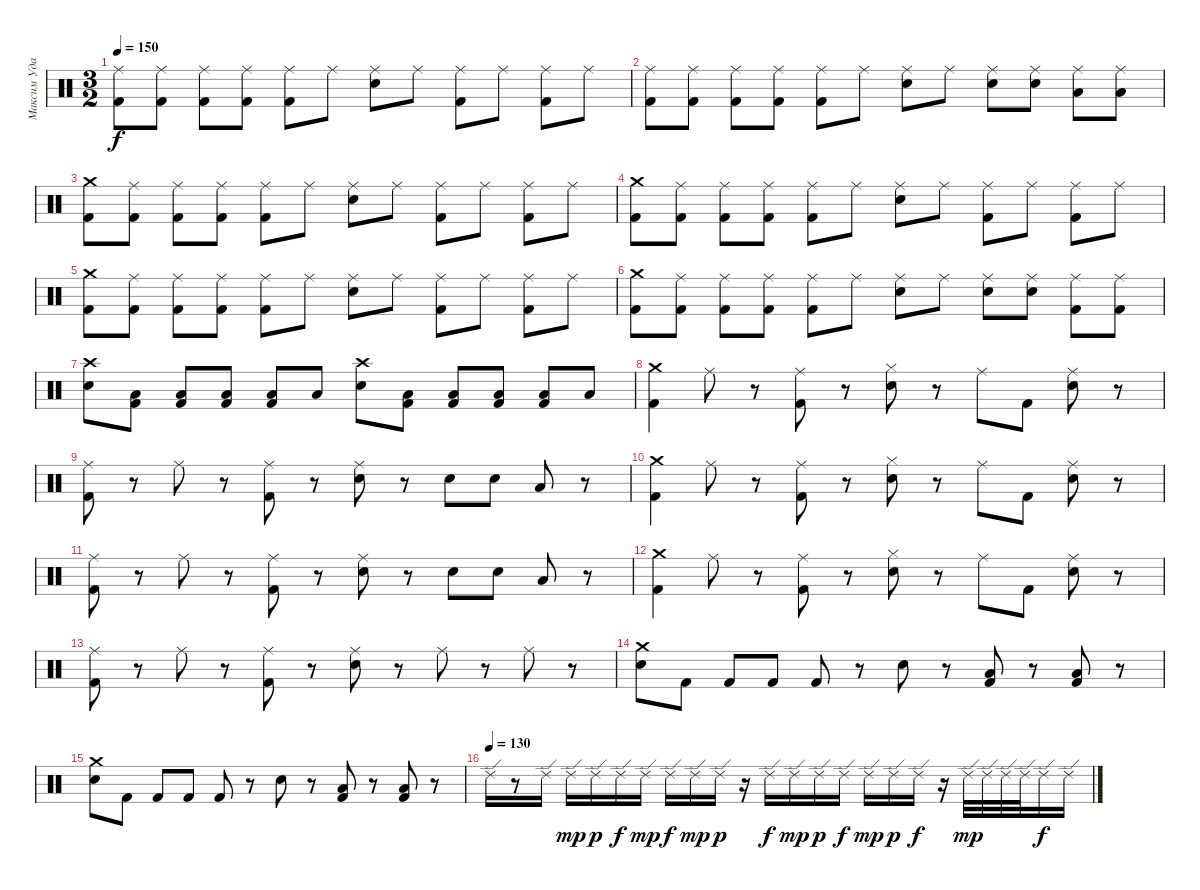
\track ("Максим Удалов" "Максим Уда") {instrument percussion}
\staff {score}
\articulation defaults
\ts (3 2)
\tempo 150
\clef neutral
\ks c
("Kick (hit) 2" "Ride (middle)").8{dy f} ("Ride (middle)" "Kick (hit) 2").8 ("Kick (hit) 2" "Ride (middle)").8 ("Kick (hit) 2" "Ride (middle)").8 ("Kick (hit) 2" "Ride (middle)").8 "Ride (middle)".8 ("Electric Snare (hit)" "Ride (middle)").8 "Ride (middle)".8 ("Kick (hit) 2" "Ride (middle)").8 "Ride (middle)".8 ("Kick (hit) 2" "Ride (middle)").8 "Ride (middle)".8 |
("Kick (hit) 2" "Ride (middle)").8 ("Kick (hit) 2" "Ride (middle)").8 ("Ride (middle)" "Kick (hit) 2").8 ("Ride (middle)" "Kick (hit) 2").8 ("Kick (hit) 2" "Ride (middle)").8 "Ride (middle)".8 ("Ride (middle)" "Electric Snare (hit)").8 "Ride (middle)".8 ("Electric Snare (hit)" "Ride (middle)").8 ("Electric Snare (hit)" "Ride (middle)").8 ("Low Floor Tom (hit)" "Ride (middle)").8 ("Low Floor Tom (hit)" "Ride (middle)").8 |
("Crash medium (hit)" "Kick (hit) 2").8 ("Ride (middle)" "Kick (hit) 2").8 ("Ride (middle)" "Kick (hit) 2").8 ("Ride (middle)" "Kick (hit) 2").8 ("Kick (hit) 2" "Ride (middle)").8 "Ride (middle)".8 ("Electric Snare (hit)" "Ride (middle)").8 "Ride (middle)".8 ("Kick (hit) 2" "Ride (middle)").8 "Ride (middle)".8 ("Kick (hit) 2" "Ride (middle)").8 "Ride (middle)".8 |
("Crash medium (hit)" "Kick (hit) 2").8 ("Kick (hit) 2" "Ride (middle)").8 ("Kick (hit) 2" "Ride (middle)").8 ("Kick (hit) 2" "Ride (middle)").8 ("Ride (middle)" "Kick (hit) 2").8 "Ride (middle)".8 ("Ride (middle)" "Electric Snare (hit)").8 "Ride (middle)".8 ("Ride (middle)" "Kick (hit) 2").8 "Ride (middle)".8 ("Ride (middle)" "Kick (hit) 2").8 "Ride (middle)".8 |
("Kick (hit) 2" "Crash medium (hit)").8 ("Kick (hit) 2" "Ride (middle)").8 ("Kick (hit) 2" "Ride (middle)").8 ("Ride (middle)" "Kick (hit) 2").8 ("Ride (middle)" "Kick (hit) 2").8 "Ride (middle)".8 ("Electric Snare (hit)" "Ride (middle)").8 "Ride (middle)".8 ("Kick (hit) 2" "Ride (middle)").8 "Ride (middle)".8 ("Kick (hit) 2" "Ride (middle)").8 "Ride (middle)".8 |
("Crash medium (hit)" "Kick (hit) 2").8 ("Ride (middle)" "Kick (hit) 2").8 ("Kick (hit) 2" "Ride (middle)").8 ("Kick (hit) 2" "Ride (middle)").8 ("Ride (middle)" "Kick (hit) 2").8 "Ride (middle)".8 ("Electric Snare (hit)" "Ride (middle)").8 "Ride (middle)".8 ("Electric Snare (hit)" "Ride (middle)").8 ("Electric Snare (hit)" "Ride (middle)").8 ("Ride (middle)" "Kick (hit) 2").8 ("Ride (middle)" "Kick (hit) 2").8 |
("Crash high (hit)" "Electric Snare (hit)").8 ("Low Floor Tom (hit)" "Kick (hit) 2").8 ("Kick (hit) 2" "Low Floor Tom (hit)").8 ("Low Floor Tom (hit)" "Kick (hit) 2").8 ("Low Floor Tom (hit)" "Kick (hit) 2").8 "Low Floor Tom (hit)".8 ("Crash high (hit)" "Electric Snare (hit)").8 ("Low Floor Tom (hit)" "Kick (hit) 2").8 ("Kick (hit) 2" "Low Floor Tom (hit)").8 ("Kick (hit) 2" "Low Floor Tom (hit)").8 ("Kick (hit) 2" "Low Floor Tom (hit)").8 "Low Floor Tom (hit)".8 |
("Crash medium (hit)" "Kick (hit) 2").4 "Ride (middle)".8 r.8 ("Ride (middle)" "Kick (hit) 2").8 r.8 ("Electric Snare (hit)" "Hi-Hat (closed)").8 r.8 "Ride (middle)".8 "Kick (hit) 2".8 ("Ride (middle)" "Electric Snare (hit)").8 r.8 |
("Ride (middle)" "Kick (hit) 2").8 r.8 "Ride (middle)".8 r.8 ("Kick (hit) 2" "Ride (middle)").8 r.8 ("Electric Snare (hit)" "Ride (middle)").8 r.8 "Electric Snare (hit)".8 "Electric Snare (hit)".8 "Low Floor Tom (hit)".8 r.8 |
("Kick (hit) 2" "Crash medium (hit)").4 "Ride (middle)".8 r.8 ("Kick (hit) 2" "Ride (middle)").8 r.8 ("Electric Snare (hit)" "Hi-Hat (closed)").8 r.8 "Ride (middle)".8 "Kick (hit) 2".8 ("Electric Snare (hit)" "Ride (middle)").8 r.8 |
("Kick (hit) 2" "Ride (middle)").8 r.8 "Ride (middle)".8 r.8 ("Ride (middle)" "Kick (hit) 2").8 r.8 ("Ride (middle)" "Electric Snare (hit)").8 r.8 "Electric Snare (hit)".8 "Electric Snare (hit)".8 "Low Floor Tom (hit)".8 r.8 |
("Kick (hit) 2" "Crash medium (hit)").4 "Ride (middle)".8 r.8 ("Kick (hit) 2" "Ride (middle)").8 r.8 ("Hi-Hat (closed)" "Electric Snare (hit)").8 r.8 "Ride (middle)".8 "Kick (hit) 2".8 ("Electric Snare (hit)" "Ride (middle)").8 r.8 |
("Kick (hit) 2" "Ride (middle)").8 r.8 "Ride (middle)".8 r.8 ("Ride (middle)" "Kick (hit) 2").8 r.8 ("Electric Snare (hit)" "Ride (middle)").8 r.8 "Ride (middle)".8 r.8 "Ride (middle)".8 r.8 |
("Electric Snare (hit)" "Crash medium (hit)").8 "Kick (hit) 2".8 "Kick (hit) 2".8 "Kick (hit) 2".8 "Kick (hit) 2".8 r.8 "Electric Snare (hit)".8 r.8 ("Low Floor Tom (hit)" "Kick (hit) 2").8 r.8 ("Low Floor Tom (hit)" "Kick (hit) 2").8 r.8 |
("Electric Snare (hit)" "Crash medium (hit)").8 "Kick (hit) 2".8 "Kick (hit) 2".8 "Kick (hit) 2".8 "Kick (hit) 2".8 r.8 "Electric Snare (hit)".8 r.8 ("Kick (hit) 2" "Low Floor Tom (hit)").8 r.8 ("Kick (hit) 2" "Low Floor Tom (hit)").8 r.8 |
\tempo (130)
"Ride (edge) 2".16 r.8 "Ride (edge) 2".16 "Ride (edge) 2".16{dy mp} "Ride (edge) 2".16{dy p} "Ride (edge) 2".16{dy f} "Ride (edge) 2".16{dy mp} "Ride (edge) 2".16{dy f} "Ride (edge) 2".16{dy mp} "Ride (edge) 2".16{dy p} r.16 "Ride (edge) 2".16{dy f} "Ride (edge) 2".16{dy mp} "Ride (edge) 2".16{dy p} "Ride (edge) 2".16{dy f} "Ride (edge) 2".16{dy mp} "Ride (edge) 2".16{dy p} "Ride (edge) 2".16{dy f} r.16 "Ride (edge) 2".32{dy mp} "Ride (edge) 2".32 "Ride (edge) 2".32 "Ride (edge) 2".32 "Ride (edge) 2".16{dy f} "Ride (edge) 2".16
